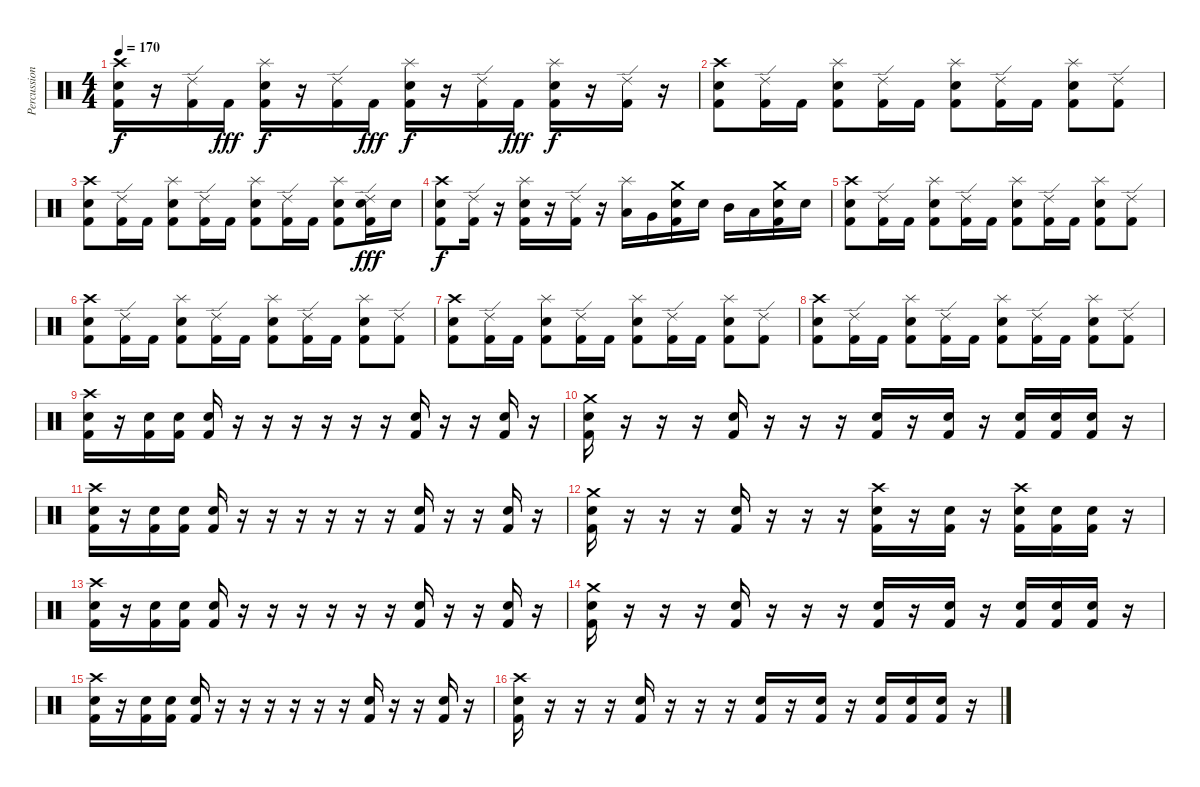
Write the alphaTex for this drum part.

\track ("Percussion" "Percussion") {instrument percussion}
\staff {score}
\articulation defaults
\ts (4 4)
\tempo 170
\clef neutral
\ks c
("Crash high (hit)" "Electric Snare (hit)" "Kick (hit) 2").16{dy f} r.16 ("Ride (edge) 2" "Kick (hit) 2").16 "Kick (hit) 2".16{dy fff} ("Splash (hit)" "Electric Snare (hit)" "Kick (hit) 2").16{dy f} r.16 ("Ride (edge) 2" "Kick (hit) 2").16 "Kick (hit) 2".16{dy fff} ("Splash (hit)" "Electric Snare (hit)" "Kick (hit) 2").16{dy f} r.16 ("Ride (edge) 2" "Kick (hit) 2").16 "Kick (hit) 2".16{dy fff} ("Splash (hit)" "Electric Snare (hit)" "Kick (hit) 2").16{dy f} r.16 ("Ride (edge) 2" "Kick (hit) 2").16 r.16 |
("Crash high (hit)" "Electric Snare (hit)" "Kick (hit) 2").8 ("Ride (edge) 2" "Kick (hit) 2").16 "Kick (hit) 2".16 ("Splash (hit)" "Electric Snare (hit)" "Kick (hit) 2").8 ("Ride (edge) 2" "Kick (hit) 2").16 "Kick (hit) 2".16 ("Splash (hit)" "Electric Snare (hit)" "Kick (hit) 2").8 ("Ride (edge) 2" "Kick (hit) 2").16 "Kick (hit) 2".16 ("Splash (hit)" "Electric Snare (hit)" "Kick (hit) 2").8 ("Ride (edge) 2" "Kick (hit) 2").8 |
("Crash high (hit)" "Electric Snare (hit)" "Kick (hit) 2").8 ("Ride (edge) 2" "Kick (hit) 2").16 "Kick (hit) 2".16 ("Splash (hit)" "Electric Snare (hit)" "Kick (hit) 2").8 ("Ride (edge) 2" "Kick (hit) 2").16 "Kick (hit) 2".16 ("Splash (hit)" "Electric Snare (hit)" "Kick (hit) 2").8 ("Ride (edge) 2" "Kick (hit) 2").16 "Kick (hit) 2".16 ("Splash (hit)" "Electric Snare (hit)" "Kick (hit) 2").8 ("Ride (edge) 2" "Electric Snare (hit)" "Kick (hit) 2").16{dy fff} "Electric Snare (hit)".16 |
("Crash high (hit)" "Electric Snare (hit)" "Kick (hit) 2").8{dy f} ("Ride (edge) 2" "Kick (hit) 2").16 r.16 ("Splash (hit)" "Electric Snare (hit)" "Kick (hit) 2").16 r.16 ("Ride (edge) 2" "Kick (hit) 2").16 r.16 ("Splash (hit)" "Low Tom (hit)").16 "Very Low Tom (hit)".16 ("Crash medium (hit)" "Electric Snare (hit)" "Kick (hit) 2").16 "Electric Snare (hit)".16 "Mid Tom (hit)".16 "Low Tom (hit)".16 ("Crash medium (hit)" "Electric Snare (hit)" "Kick (hit) 2").16 "Electric Snare (hit)".16 |
("Crash high (hit)" "Electric Snare (hit)" "Kick (hit) 2").8 ("Ride (edge) 2" "Kick (hit) 2").16 "Kick (hit) 2".16 ("Splash (hit)" "Electric Snare (hit)" "Kick (hit) 2").8 ("Ride (edge) 2" "Kick (hit) 2").16 "Kick (hit) 2".16 ("Splash (hit)" "Electric Snare (hit)" "Kick (hit) 2").8 ("Ride (edge) 2" "Kick (hit) 2").16 "Kick (hit) 2".16 ("Splash (hit)" "Electric Snare (hit)" "Kick (hit) 2").8 ("Ride (edge) 2" "Kick (hit) 2").8 |
("Crash high (hit)" "Electric Snare (hit)" "Kick (hit) 2").8 ("Ride (edge) 2" "Kick (hit) 2").16 "Kick (hit) 2".16 ("Splash (hit)" "Electric Snare (hit)" "Kick (hit) 2").8 ("Ride (edge) 2" "Kick (hit) 2").16 "Kick (hit) 2".16 ("Splash (hit)" "Electric Snare (hit)" "Kick (hit) 2").8 ("Ride (edge) 2" "Kick (hit) 2").16 "Kick (hit) 2".16 ("Splash (hit)" "Electric Snare (hit)" "Kick (hit) 2").8 ("Ride (edge) 2" "Kick (hit) 2").8 |
("Crash high (hit)" "Electric Snare (hit)" "Kick (hit) 2").8 ("Ride (edge) 2" "Kick (hit) 2").16 "Kick (hit) 2".16 ("Splash (hit)" "Electric Snare (hit)" "Kick (hit) 2").8 ("Ride (edge) 2" "Kick (hit) 2").16 "Kick (hit) 2".16 ("Splash (hit)" "Electric Snare (hit)" "Kick (hit) 2").8 ("Ride (edge) 2" "Kick (hit) 2").16 "Kick (hit) 2".16 ("Splash (hit)" "Electric Snare (hit)" "Kick (hit) 2").8 ("Ride (edge) 2" "Kick (hit) 2").8 |
("Crash high (hit)" "Electric Snare (hit)" "Kick (hit) 2").8 ("Ride (edge) 2" "Kick (hit) 2").16 "Kick (hit) 2".16 ("Splash (hit)" "Electric Snare (hit)" "Kick (hit) 2").8 ("Ride (edge) 2" "Kick (hit) 2").16 "Kick (hit) 2".16 ("Splash (hit)" "Electric Snare (hit)" "Kick (hit) 2").8 ("Ride (edge) 2" "Kick (hit) 2").16 "Kick (hit) 2".16 ("Splash (hit)" "Electric Snare (hit)" "Kick (hit) 2").8 ("Ride (edge) 2" "Kick (hit) 2").8 |
("Crash high (hit)" "Electric Snare (hit)" "Kick (hit) 2").16 r.16 ("Electric Snare (hit)" "Kick (hit) 2").16 ("Electric Snare (hit)" "Kick (hit) 2").16 ("Electric Snare (hit)" "Kick (hit) 2").16 r.16 r.16 r.16 r.16 r.16 r.16 ("Electric Snare (hit)" "Kick (hit) 2").16 r.16 r.16 ("Electric Snare (hit)" "Kick (hit) 2").16 r.16 |
("Crash medium (hit)" "Electric Snare (hit)" "Kick (hit) 2").16 r.16 r.16 r.16 ("Electric Snare (hit)" "Kick (hit) 2").16 r.16 r.16 r.16 ("Electric Snare (hit)" "Kick (hit) 2").16 r.16 ("Electric Snare (hit)" "Kick (hit) 2").16 r.16 ("Electric Snare (hit)" "Kick (hit) 2").16 ("Electric Snare (hit)" "Kick (hit) 2").16 ("Electric Snare (hit)" "Kick (hit) 2").16 r.16 |
("Crash high (hit)" "Electric Snare (hit)" "Kick (hit) 2").16 r.16 ("Electric Snare (hit)" "Kick (hit) 2").16 ("Electric Snare (hit)" "Kick (hit) 2").16 ("Electric Snare (hit)" "Kick (hit) 2").16 r.16 r.16 r.16 r.16 r.16 r.16 ("Electric Snare (hit)" "Kick (hit) 2").16 r.16 r.16 ("Electric Snare (hit)" "Kick (hit) 2").16 r.16 |
("Crash medium (hit)" "Electric Snare (hit)" "Kick (hit) 2").16 r.16 r.16 r.16 ("Electric Snare (hit)" "Kick (hit) 2").16 r.16 r.16 r.16 ("Crash high (hit)" "Electric Snare (hit)" "Kick (hit) 2").16 r.16 ("Electric Snare (hit)" "Kick (hit) 2").16 r.16 ("Crash high (hit)" "Electric Snare (hit)" "Kick (hit) 2").16 ("Electric Snare (hit)" "Kick (hit) 2").16 ("Electric Snare (hit)" "Kick (hit) 2").16 r.16 |
("Crash high (hit)" "Electric Snare (hit)" "Kick (hit) 2").16 r.16 ("Electric Snare (hit)" "Kick (hit) 2").16 ("Electric Snare (hit)" "Kick (hit) 2").16 ("Electric Snare (hit)" "Kick (hit) 2").16 r.16 r.16 r.16 r.16 r.16 r.16 ("Electric Snare (hit)" "Kick (hit) 2").16 r.16 r.16 ("Electric Snare (hit)" "Kick (hit) 2").16 r.16 |
("Crash medium (hit)" "Electric Snare (hit)" "Kick (hit) 2").16 r.16 r.16 r.16 ("Electric Snare (hit)" "Kick (hit) 2").16 r.16 r.16 r.16 ("Electric Snare (hit)" "Kick (hit) 2").16 r.16 ("Electric Snare (hit)" "Kick (hit) 2").16 r.16 ("Electric Snare (hit)" "Kick (hit) 2").16 ("Electric Snare (hit)" "Kick (hit) 2").16 ("Electric Snare (hit)" "Kick (hit) 2").16 r.16 |
("Crash high (hit)" "Electric Snare (hit)" "Kick (hit) 2").16 r.16 ("Electric Snare (hit)" "Kick (hit) 2").16 ("Electric Snare (hit)" "Kick (hit) 2").16 ("Electric Snare (hit)" "Kick (hit) 2").16 r.16 r.16 r.16 r.16 r.16 r.16 ("Electric Snare (hit)" "Kick (hit) 2").16 r.16 r.16 ("Electric Snare (hit)" "Kick (hit) 2").16 r.16 |
("Crash high (hit)" "Electric Snare (hit)" "Kick (hit) 2").16 r.16 r.16 r.16 ("Electric Snare (hit)" "Kick (hit) 2").16 r.16 r.16 r.16 ("Electric Snare (hit)" "Kick (hit) 2").16 r.16 ("Electric Snare (hit)" "Kick (hit) 2").16 r.16 ("Electric Snare (hit)" "Kick (hit) 2").16 ("Electric Snare (hit)" "Kick (hit) 2").16 ("Electric Snare (hit)" "Kick (hit) 2").16 r.16
